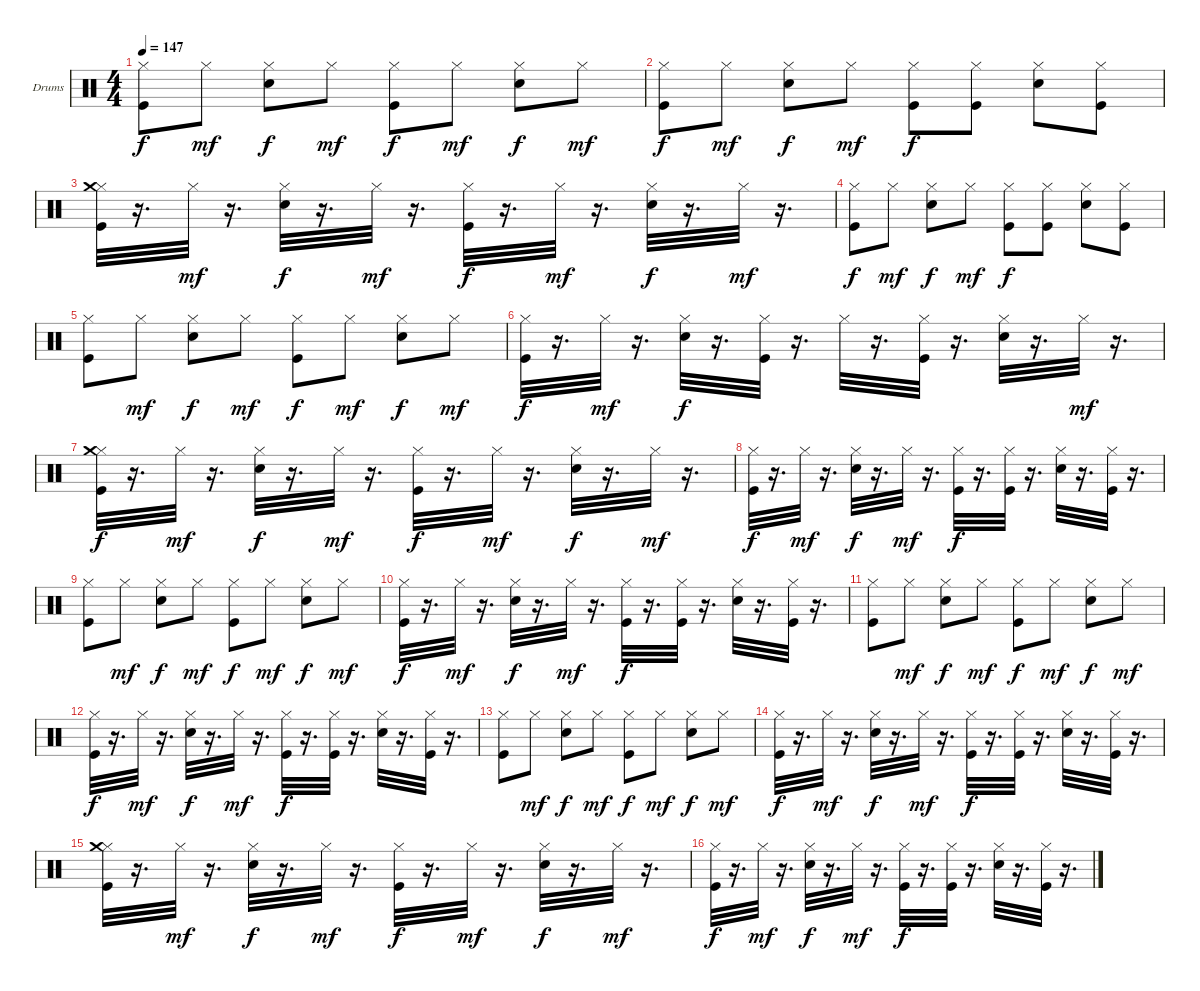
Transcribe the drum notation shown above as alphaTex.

\bracketExtendMode groupsimilarinstruments
\firstSystemTrackNameOrientation horizontal
\otherSystemsTrackNameOrientation horizontal
\track ("Drumkit" "Drums") {instrument percussion}
\staff {score}
\articulation defaults
\ts (4 4)
\tempo 147
\clef neutral
\ks c
("Hi-Hat (closed)" "Kick (hit)").8{dy f} "Hi-Hat (closed)".8{dy mf} ("Hi-Hat (closed)" "Snare (hit) 2").8{dy f} "Hi-Hat (closed)".8{dy mf} ("Hi-Hat (closed)" "Kick (hit)").8{dy f} "Hi-Hat (closed)".8{dy mf} ("Hi-Hat (closed)" "Snare (hit) 2").8{dy f} "Hi-Hat (closed)".8{dy mf} |
("Hi-Hat (closed)" "Kick (hit)").8{dy f} "Hi-Hat (closed)".8{dy mf} ("Hi-Hat (closed)" "Snare (hit) 2").8{dy f} "Hi-Hat (closed)".8{dy mf} ("Hi-Hat (closed)" "Kick (hit)").8{dy f} ("Hi-Hat (closed)" "Kick (hit)").8 ("Hi-Hat (closed)" "Snare (hit) 2").8 ("Hi-Hat (closed)" "Kick (hit)").8 |
("Kick (hit)" "Hi-Hat (closed)" "Crash medium (hit)").32 r.16{d} "Hi-Hat (closed)".32{dy mf} r.16{d} ("Snare (hit) 2" "Hi-Hat (closed)").32{dy f} r.16{d} "Hi-Hat (closed)".32{dy mf} r.16{d} ("Kick (hit)" "Hi-Hat (closed)").32{dy f} r.16{d} "Hi-Hat (closed)".32{dy mf} r.16{d} ("Snare (hit) 2" "Hi-Hat (closed)").32{dy f} r.16{d} "Hi-Hat (closed)".32{dy mf} r.16{d} |
("Hi-Hat (closed)" "Kick (hit)").8{dy f} "Hi-Hat (closed)".8{dy mf} ("Hi-Hat (closed)" "Snare (hit) 2").8{dy f} "Hi-Hat (closed)".8{dy mf} ("Hi-Hat (closed)" "Kick (hit)").8{dy f} ("Hi-Hat (closed)" "Kick (hit)").8 ("Hi-Hat (closed)" "Snare (hit) 2").8 ("Hi-Hat (closed)" "Kick (hit)").8 |
("Hi-Hat (closed)" "Kick (hit)").8 "Hi-Hat (closed)".8{dy mf} ("Hi-Hat (closed)" "Snare (hit) 2").8{dy f} "Hi-Hat (closed)".8{dy mf} ("Hi-Hat (closed)" "Kick (hit)").8{dy f} "Hi-Hat (closed)".8{dy mf} ("Hi-Hat (closed)" "Snare (hit) 2").8{dy f} "Hi-Hat (closed)".8{dy mf} |
("Kick (hit)" "Hi-Hat (closed)").32{dy f} r.16{d} "Hi-Hat (closed)".32{dy mf} r.16{d} ("Snare (hit) 2" "Hi-Hat (closed)").32{dy f} r.16{d} ("Kick (hit)" "Hi-Hat (closed)").32 r.16{d} "Hi-Hat (closed)".32 r.16{d} ("Kick (hit)" "Hi-Hat (closed)").32 r.16{d} ("Snare (hit) 2" "Hi-Hat (closed)").32 r.16{d} "Hi-Hat (closed)".32{dy mf} r.16{d} |
("Kick (hit)" "Hi-Hat (closed)" "Crash medium (hit)").32{dy f} r.16{d} "Hi-Hat (closed)".32{dy mf} r.16{d} ("Snare (hit) 2" "Hi-Hat (closed)").32{dy f} r.16{d} "Hi-Hat (closed)".32{dy mf} r.16{d} ("Kick (hit)" "Hi-Hat (closed)").32{dy f} r.16{d} "Hi-Hat (closed)".32{dy mf} r.16{d} ("Snare (hit) 2" "Hi-Hat (closed)").32{dy f} r.16{d} "Hi-Hat (closed)".32{dy mf} r.16{d} |
("Kick (hit)" "Hi-Hat (closed)").32{dy f} r.16{d} "Hi-Hat (closed)".32{dy mf} r.16{d} ("Snare (hit) 2" "Hi-Hat (closed)").32{dy f} r.16{d} "Hi-Hat (closed)".32{dy mf} r.16{d} ("Kick (hit)" "Hi-Hat (closed)").32{dy f} r.16{d} ("Kick (hit)" "Hi-Hat (closed)").32 r.16{d} ("Snare (hit) 2" "Hi-Hat (closed)").32 r.16{d} ("Kick (hit)" "Hi-Hat (closed)").32 r.16{d} |
("Hi-Hat (closed)" "Kick (hit)").8 "Hi-Hat (closed)".8{dy mf} ("Hi-Hat (closed)" "Snare (hit) 2").8{dy f} "Hi-Hat (closed)".8{dy mf} ("Hi-Hat (closed)" "Kick (hit)").8{dy f} "Hi-Hat (closed)".8{dy mf} ("Hi-Hat (closed)" "Snare (hit) 2").8{dy f} "Hi-Hat (closed)".8{dy mf} |
("Kick (hit)" "Hi-Hat (closed)").32{dy f} r.16{d} "Hi-Hat (closed)".32{dy mf} r.16{d} ("Snare (hit) 2" "Hi-Hat (closed)").32{dy f} r.16{d} "Hi-Hat (closed)".32{dy mf} r.16{d} ("Kick (hit)" "Hi-Hat (closed)").32{dy f} r.16{d} ("Kick (hit)" "Hi-Hat (closed)").32 r.16{d} ("Snare (hit) 2" "Hi-Hat (closed)").32 r.16{d} ("Kick (hit)" "Hi-Hat (closed)").32 r.16{d} |
("Hi-Hat (closed)" "Kick (hit)").8 "Hi-Hat (closed)".8{dy mf} ("Hi-Hat (closed)" "Snare (hit) 2").8{dy f} "Hi-Hat (closed)".8{dy mf} ("Hi-Hat (closed)" "Kick (hit)").8{dy f} "Hi-Hat (closed)".8{dy mf} ("Hi-Hat (closed)" "Snare (hit) 2").8{dy f} "Hi-Hat (closed)".8{dy mf} |
("Kick (hit)" "Hi-Hat (closed)").32{dy f} r.16{d} "Hi-Hat (closed)".32{dy mf} r.16{d} ("Snare (hit) 2" "Hi-Hat (closed)").32{dy f} r.16{d} "Hi-Hat (closed)".32{dy mf} r.16{d} ("Kick (hit)" "Hi-Hat (closed)").32{dy f} r.16{d} ("Kick (hit)" "Hi-Hat (closed)").32 r.16{d} ("Snare (hit) 2" "Hi-Hat (closed)").32 r.16{d} ("Kick (hit)" "Hi-Hat (closed)").32 r.16{d} |
("Hi-Hat (closed)" "Kick (hit)").8 "Hi-Hat (closed)".8{dy mf} ("Hi-Hat (closed)" "Snare (hit) 2").8{dy f} "Hi-Hat (closed)".8{dy mf} ("Hi-Hat (closed)" "Kick (hit)").8{dy f} "Hi-Hat (closed)".8{dy mf} ("Hi-Hat (closed)" "Snare (hit) 2").8{dy f} "Hi-Hat (closed)".8{dy mf} |
("Kick (hit)" "Hi-Hat (closed)").32{dy f} r.16{d} "Hi-Hat (closed)".32{dy mf} r.16{d} ("Snare (hit) 2" "Hi-Hat (closed)").32{dy f} r.16{d} "Hi-Hat (closed)".32{dy mf} r.16{d} ("Kick (hit)" "Hi-Hat (closed)").32{dy f} r.16{d} ("Kick (hit)" "Hi-Hat (closed)").32 r.16{d} ("Snare (hit) 2" "Hi-Hat (closed)").32 r.16{d} ("Kick (hit)" "Hi-Hat (closed)").32 r.16{d} |
("Kick (hit)" "Hi-Hat (closed)" "Crash medium (hit)").32 r.16{d} "Hi-Hat (closed)".32{dy mf} r.16{d} ("Snare (hit) 2" "Hi-Hat (closed)").32{dy f} r.16{d} "Hi-Hat (closed)".32{dy mf} r.16{d} ("Kick (hit)" "Hi-Hat (closed)").32{dy f} r.16{d} "Hi-Hat (closed)".32{dy mf} r.16{d} ("Snare (hit) 2" "Hi-Hat (closed)").32{dy f} r.16{d} "Hi-Hat (closed)".32{dy mf} r.16{d} |
("Kick (hit)" "Hi-Hat (closed)").32{dy f} r.16{d} "Hi-Hat (closed)".32{dy mf} r.16{d} ("Snare (hit) 2" "Hi-Hat (closed)").32{dy f} r.16{d} "Hi-Hat (closed)".32{dy mf} r.16{d} ("Kick (hit)" "Hi-Hat (closed)").32{dy f} r.16{d} ("Kick (hit)" "Hi-Hat (closed)").32 r.16{d} ("Snare (hit) 2" "Hi-Hat (closed)").32 r.16{d} ("Kick (hit)" "Hi-Hat (closed)").32 r.16{d}
